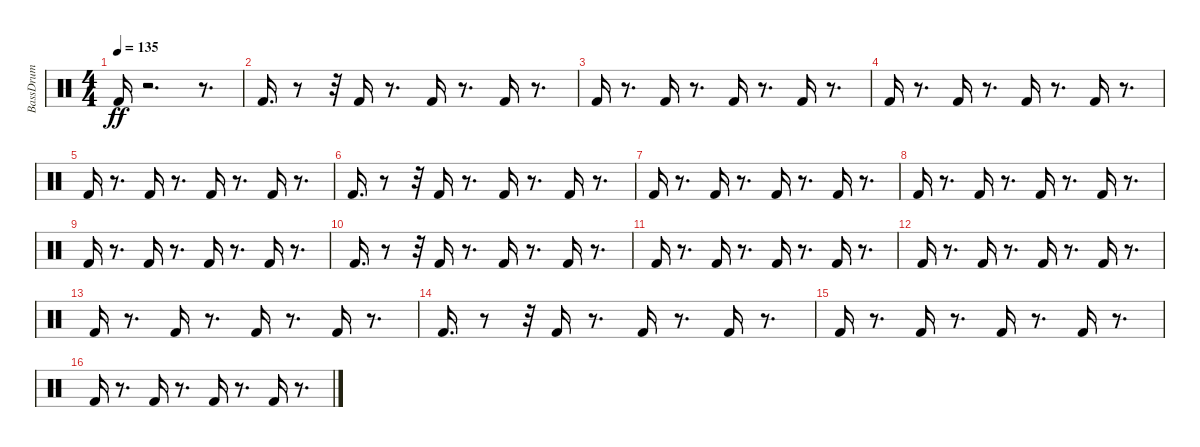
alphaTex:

\track ("BassDrum" "BassDrum") {instrument percussion}
\staff {score}
\articulation defaults
\ts (4 4)
\tempo 135
\clef neutral
\ks c "Kick (hit) 2".16{dy ff}
r.2{d} r.8{d} |
"Kick (hit) 2".16{d} r.8 r.32 "Kick (hit) 2".16 r.8{d} "Kick (hit) 2".16 r.8{d} "Kick (hit) 2".16 r.8{d} |
"Kick (hit) 2".16 r.8{d} "Kick (hit) 2".16 r.8{d} "Kick (hit) 2".16 r.8{d} "Kick (hit) 2".16 r.8{d} |
"Kick (hit) 2".16 r.8{d} "Kick (hit) 2".16 r.8{d} "Kick (hit) 2".16 r.8{d} "Kick (hit) 2".16 r.8{d} |
"Kick (hit) 2".16 r.8{d} "Kick (hit) 2".16 r.8{d} "Kick (hit) 2".16 r.8{d} "Kick (hit) 2".16 r.8{d} |
"Kick (hit) 2".16{d} r.8 r.32 "Kick (hit) 2".16 r.8{d} "Kick (hit) 2".16 r.8{d} "Kick (hit) 2".16 r.8{d} |
"Kick (hit) 2".16 r.8{d} "Kick (hit) 2".16 r.8{d} "Kick (hit) 2".16 r.8{d} "Kick (hit) 2".16 r.8{d} |
"Kick (hit) 2".16 r.8{d} "Kick (hit) 2".16 r.8{d} "Kick (hit) 2".16 r.8{d} "Kick (hit) 2".16 r.8{d} |
"Kick (hit) 2".16 r.8{d} "Kick (hit) 2".16 r.8{d} "Kick (hit) 2".16 r.8{d} "Kick (hit) 2".16 r.8{d} |
"Kick (hit) 2".16{d} r.8 r.32 "Kick (hit) 2".16 r.8{d} "Kick (hit) 2".16 r.8{d} "Kick (hit) 2".16 r.8{d} |
"Kick (hit) 2".16 r.8{d} "Kick (hit) 2".16 r.8{d} "Kick (hit) 2".16 r.8{d} "Kick (hit) 2".16 r.8{d} |
"Kick (hit) 2".16 r.8{d} "Kick (hit) 2".16 r.8{d} "Kick (hit) 2".16 r.8{d} "Kick (hit) 2".16 r.8{d} |
"Kick (hit) 2".16 r.8{d} "Kick (hit) 2".16 r.8{d} "Kick (hit) 2".16 r.8{d} "Kick (hit) 2".16 r.8{d} |
"Kick (hit) 2".16{d} r.8 r.32 "Kick (hit) 2".16 r.8{d} "Kick (hit) 2".16 r.8{d} "Kick (hit) 2".16 r.8{d} |
"Kick (hit) 2".16 r.8{d} "Kick (hit) 2".16 r.8{d} "Kick (hit) 2".16 r.8{d} "Kick (hit) 2".16 r.8{d} |
"Kick (hit) 2".16 r.8{d} "Kick (hit) 2".16 r.8{d} "Kick (hit) 2".16 r.8{d} "Kick (hit) 2".16 r.8{d}
